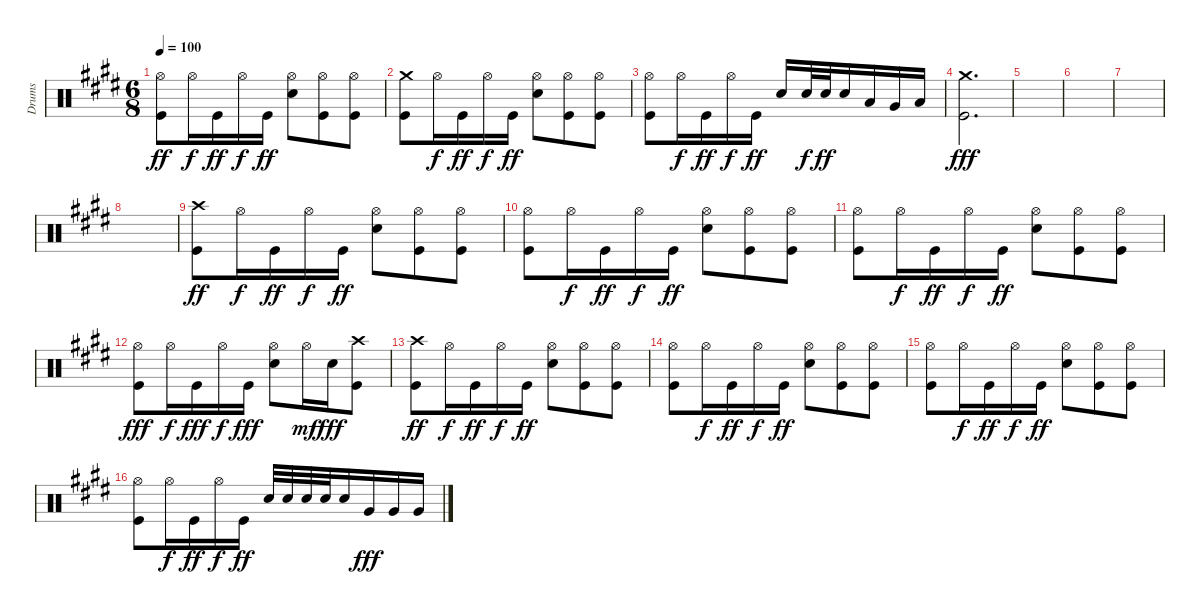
\track ("Drums" "Drums") {instrument percussion}
\staff {score}
\articulation defaults
\ts (6 8)
\tempo 100
\clef neutral
\ks c#minor
("Hi-Hat (open)" "Kick (hit)").8{dy ff} "Hi-Hat (open)".16{dy f} "Kick (hit)".16{dy ff} "Hi-Hat (open)".16{dy f} "Kick (hit)".16{dy ff} ("Hi-Hat (open)" "Electric Snare (hit)").8 ("Hi-Hat (open)" "Kick (hit)").8 ("Hi-Hat (open)" "Kick (hit)").8 |
("Crash medium (hit)" "Kick (hit)").8 "Hi-Hat (open)".16{dy f} "Kick (hit)".16{dy ff} "Hi-Hat (open)".16{dy f} "Kick (hit)".16{dy ff} ("Hi-Hat (open)" "Electric Snare (hit)").8 ("Hi-Hat (open)" "Kick (hit)").8 ("Hi-Hat (open)" "Kick (hit)").8 |
("Hi-Hat (open)" "Kick (hit)").8 "Hi-Hat (open)".16{dy f} "Kick (hit)".16{dy ff} "Hi-Hat (open)".16{dy f} "Kick (hit)".16{dy ff} "Electric Snare (hit)".16 "Electric Snare (hit)".32{dy f} "Electric Snare (hit)".32{dy ff} "Electric Snare (hit)".16 "Low Tom (hit)".16 "Very Low Tom (hit)".16 "Low Floor Tom (hit)".16 |
("Crash medium (hit)" "Kick (hit)").2{d dy fff} |
|
|
|
|
("Crash high (hit)" "Kick (hit)").8{dy ff} "Hi-Hat (open)".16{dy f} "Kick (hit)".16{dy ff} "Hi-Hat (open)".16{dy f} "Kick (hit)".16{dy ff} ("Hi-Hat (open)" "Electric Snare (hit)").8 ("Hi-Hat (open)" "Kick (hit)").8 ("Hi-Hat (open)" "Kick (hit)").8 |
("Hi-Hat (open)" "Kick (hit)").8 "Hi-Hat (open)".16{dy f} "Kick (hit)".16{dy ff} "Hi-Hat (open)".16{dy f} "Kick (hit)".16{dy ff} ("Hi-Hat (open)" "Electric Snare (hit)").8 ("Hi-Hat (open)" "Kick (hit)").8 ("Hi-Hat (open)" "Kick (hit)").8 |
("Hi-Hat (open)" "Kick (hit)").8 "Hi-Hat (open)".16{dy f} "Kick (hit)".16{dy ff} "Hi-Hat (open)".16{dy f} "Kick (hit)".16{dy ff} ("Hi-Hat (open)" "Electric Snare (hit)").8 ("Hi-Hat (open)" "Kick (hit)").8 ("Hi-Hat (open)" "Kick (hit)").8 |
("Hi-Hat (open)" "Kick (hit)").8{dy fff} "Hi-Hat (open)".16{dy f} "Kick (hit)".16{dy fff} "Hi-Hat (open)".16{dy f} "Kick (hit)".16{dy fff} ("Hi-Hat (open)" "Electric Snare (hit)").8 "Hi-Hat (open)".16{dy mf} "Electric Snare (hit)".16{dy fff} ("Crash high (hit)" "Kick (hit)").8 |
("Crash high (hit)" "Kick (hit)").8{dy ff} "Hi-Hat (open)".16{dy f} "Kick (hit)".16{dy ff} "Hi-Hat (open)".16{dy f} "Kick (hit)".16{dy ff} ("Hi-Hat (open)" "Electric Snare (hit)").8 ("Hi-Hat (open)" "Kick (hit)").8 ("Hi-Hat (open)" "Kick (hit)").8 |
("Hi-Hat (open)" "Kick (hit)").8 "Hi-Hat (open)".16{dy f} "Kick (hit)".16{dy ff} "Hi-Hat (open)".16{dy f} "Kick (hit)".16{dy ff} ("Hi-Hat (open)" "Electric Snare (hit)").8 ("Hi-Hat (open)" "Kick (hit)").8 ("Hi-Hat (open)" "Kick (hit)").8 |
("Hi-Hat (open)" "Kick (hit)").8 "Hi-Hat (open)".16{dy f} "Kick (hit)".16{dy ff} "Hi-Hat (open)".16{dy f} "Kick (hit)".16{dy ff} ("Hi-Hat (open)" "Electric Snare (hit)").8 ("Hi-Hat (open)" "Kick (hit)").8 ("Hi-Hat (open)" "Kick (hit)").8 |
("Hi-Hat (open)" "Kick (hit)").8 "Hi-Hat (open)".16{dy f} "Kick (hit)".16{dy ff} "Hi-Hat (open)".16{dy f} "Kick (hit)".16{dy ff} "Electric Snare (hit)".32 "Electric Snare (hit)".32 "Electric Snare (hit)".32 "Electric Snare (hit)".32 "Electric Snare (hit)".16 "Very Low Tom (hit)".16{dy fff} "Very Low Tom (hit)".16 "Very Low Tom (hit)".16
